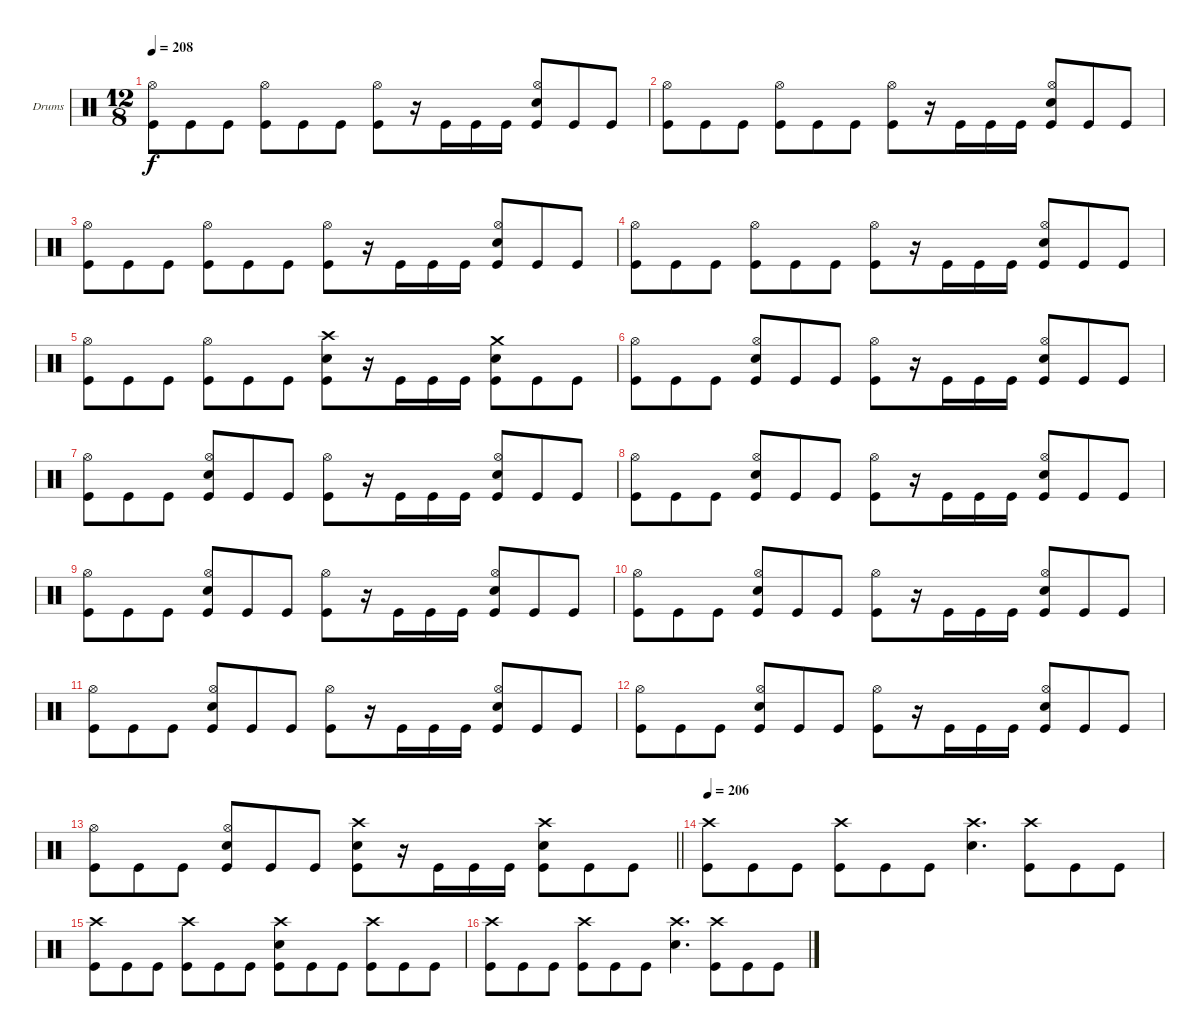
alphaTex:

\bracketExtendMode groupsimilarinstruments
\firstSystemTrackNameOrientation horizontal
\otherSystemsTrackNameOrientation horizontal
\track ("Drumkit" "Drums") {instrument percussion}
\staff {score}
\articulation defaults
\ts (12 8)
\tempo 208
\clef neutral
\ks c
("Kick (hit)" "Hi-Hat (open)").8{dy f} "Kick (hit)".8 "Kick (hit)".8 ("Kick (hit)" "Hi-Hat (open)").8 "Kick (hit)".8 "Kick (hit)".8 ("Kick (hit)" "Hi-Hat (open)").8 r.16 "Kick (hit)".16 "Kick (hit)".16 "Kick (hit)".16 ("Kick (hit)" "Hi-Hat (open)" "Snare (hit) 2").8 "Kick (hit)".8 "Kick (hit)".8 |
("Kick (hit)" "Hi-Hat (open)").8 "Kick (hit)".8 "Kick (hit)".8 ("Kick (hit)" "Hi-Hat (open)").8 "Kick (hit)".8 "Kick (hit)".8 ("Kick (hit)" "Hi-Hat (open)").8 r.16 "Kick (hit)".16 "Kick (hit)".16 "Kick (hit)".16 ("Kick (hit)" "Hi-Hat (open)" "Snare (hit) 2").8 "Kick (hit)".8 "Kick (hit)".8 |
("Kick (hit)" "Hi-Hat (open)").8 "Kick (hit)".8 "Kick (hit)".8 ("Kick (hit)" "Hi-Hat (open)").8 "Kick (hit)".8 "Kick (hit)".8 ("Kick (hit)" "Hi-Hat (open)").8 r.16 "Kick (hit)".16 "Kick (hit)".16 "Kick (hit)".16 ("Kick (hit)" "Hi-Hat (open)" "Snare (hit) 2").8 "Kick (hit)".8 "Kick (hit)".8 |
("Kick (hit)" "Hi-Hat (open)").8 "Kick (hit)".8 "Kick (hit)".8 ("Kick (hit)" "Hi-Hat (open)").8 "Kick (hit)".8 "Kick (hit)".8 ("Kick (hit)" "Hi-Hat (open)").8 r.16 "Kick (hit)".16 "Kick (hit)".16 "Kick (hit)".16 ("Kick (hit)" "Hi-Hat (open)" "Snare (hit) 2").8 "Kick (hit)".8 "Kick (hit)".8 |
("Kick (hit)" "Hi-Hat (open)").8 "Kick (hit)".8 "Kick (hit)".8 ("Kick (hit)" "Hi-Hat (open)").8 "Kick (hit)".8 "Kick (hit)".8 ("Kick (hit)" "Crash high (hit)" "Snare (hit) 2").8 r.16 "Kick (hit)".16 "Kick (hit)".16 "Kick (hit)".16 ("Kick (hit)" "Crash medium (hit)" "Snare (hit) 2").8 "Kick (hit)".8 "Kick (hit)".8 |
("Kick (hit)" "Hi-Hat (open)").8 "Kick (hit)".8 "Kick (hit)".8 ("Kick (hit)" "Hi-Hat (open)" "Snare (hit) 2").8 "Kick (hit)".8 "Kick (hit)".8 ("Kick (hit)" "Hi-Hat (open)").8 r.16 "Kick (hit)".16 "Kick (hit)".16 "Kick (hit)".16 ("Kick (hit)" "Hi-Hat (open)" "Snare (hit) 2").8 "Kick (hit)".8 "Kick (hit)".8 |
("Kick (hit)" "Hi-Hat (open)").8 "Kick (hit)".8 "Kick (hit)".8 ("Kick (hit)" "Hi-Hat (open)" "Snare (hit) 2").8 "Kick (hit)".8 "Kick (hit)".8 ("Kick (hit)" "Hi-Hat (open)").8 r.16 "Kick (hit)".16 "Kick (hit)".16 "Kick (hit)".16 ("Kick (hit)" "Hi-Hat (open)" "Snare (hit) 2").8 "Kick (hit)".8 "Kick (hit)".8 |
("Kick (hit)" "Hi-Hat (open)").8 "Kick (hit)".8 "Kick (hit)".8 ("Kick (hit)" "Hi-Hat (open)" "Snare (hit) 2").8 "Kick (hit)".8 "Kick (hit)".8 ("Kick (hit)" "Hi-Hat (open)").8 r.16 "Kick (hit)".16 "Kick (hit)".16 "Kick (hit)".16 ("Kick (hit)" "Hi-Hat (open)" "Snare (hit) 2").8 "Kick (hit)".8 "Kick (hit)".8 |
("Kick (hit)" "Hi-Hat (open)").8 "Kick (hit)".8 "Kick (hit)".8 ("Kick (hit)" "Hi-Hat (open)" "Snare (hit) 2").8 "Kick (hit)".8 "Kick (hit)".8 ("Kick (hit)" "Hi-Hat (open)").8 r.16 "Kick (hit)".16 "Kick (hit)".16 "Kick (hit)".16 ("Kick (hit)" "Hi-Hat (open)" "Snare (hit) 2").8 "Kick (hit)".8 "Kick (hit)".8 |
("Kick (hit)" "Hi-Hat (open)").8 "Kick (hit)".8 "Kick (hit)".8 ("Kick (hit)" "Hi-Hat (open)" "Snare (hit) 2").8 "Kick (hit)".8 "Kick (hit)".8 ("Kick (hit)" "Hi-Hat (open)").8 r.16 "Kick (hit)".16 "Kick (hit)".16 "Kick (hit)".16 ("Kick (hit)" "Hi-Hat (open)" "Snare (hit) 2").8 "Kick (hit)".8 "Kick (hit)".8 |
("Kick (hit)" "Hi-Hat (open)").8 "Kick (hit)".8 "Kick (hit)".8 ("Kick (hit)" "Hi-Hat (open)" "Snare (hit) 2").8 "Kick (hit)".8 "Kick (hit)".8 ("Kick (hit)" "Hi-Hat (open)").8 r.16 "Kick (hit)".16 "Kick (hit)".16 "Kick (hit)".16 ("Kick (hit)" "Hi-Hat (open)" "Snare (hit) 2").8 "Kick (hit)".8 "Kick (hit)".8 |
("Kick (hit)" "Hi-Hat (open)").8 "Kick (hit)".8 "Kick (hit)".8 ("Kick (hit)" "Hi-Hat (open)" "Snare (hit) 2").8 "Kick (hit)".8 "Kick (hit)".8 ("Kick (hit)" "Hi-Hat (open)").8 r.16 "Kick (hit)".16 "Kick (hit)".16 "Kick (hit)".16 ("Kick (hit)" "Hi-Hat (open)" "Snare (hit) 2").8 "Kick (hit)".8 "Kick (hit)".8 |
\barLineRight lightlight
("Kick (hit)" "Hi-Hat (open)").8 "Kick (hit)".8 "Kick (hit)".8 ("Kick (hit)" "Hi-Hat (open)" "Snare (hit) 2").8 "Kick (hit)".8 "Kick (hit)".8 ("Kick (hit)" "Crash high (hit)" "Snare (hit) 2").8 r.16 "Kick (hit)".16 "Kick (hit)".16 "Kick (hit)".16 ("Kick (hit)" "Crash high (hit)" "Snare (hit) 2").8 "Kick (hit)".8 "Kick (hit)".8 |
\tempo 206
("Crash high (hit)" "Kick (hit)").8 "Kick (hit)".8 "Kick (hit)".8 ("Crash high (hit)" "Kick (hit)").8 "Kick (hit)".8 "Kick (hit)".8 ("Crash high (hit)" "Snare (hit) 2").4{d} ("Crash high (hit)" "Kick (hit)").8 "Kick (hit)".8 "Kick (hit)".8 |
("Crash high (hit)" "Kick (hit)").8 "Kick (hit)".8 "Kick (hit)".8 ("Crash high (hit)" "Kick (hit)").8 "Kick (hit)".8 "Kick (hit)".8 ("Crash high (hit)" "Kick (hit)" "Snare (hit) 2").8 "Kick (hit)".8 "Kick (hit)".8 ("Crash high (hit)" "Kick (hit)").8 "Kick (hit)".8 "Kick (hit)".8 |
("Crash high (hit)" "Kick (hit)").8 "Kick (hit)".8 "Kick (hit)".8 ("Crash high (hit)" "Kick (hit)").8 "Kick (hit)".8 "Kick (hit)".8 ("Crash high (hit)" "Snare (hit) 2").4{d} ("Crash high (hit)" "Kick (hit)").8 "Kick (hit)".8 "Kick (hit)".8
